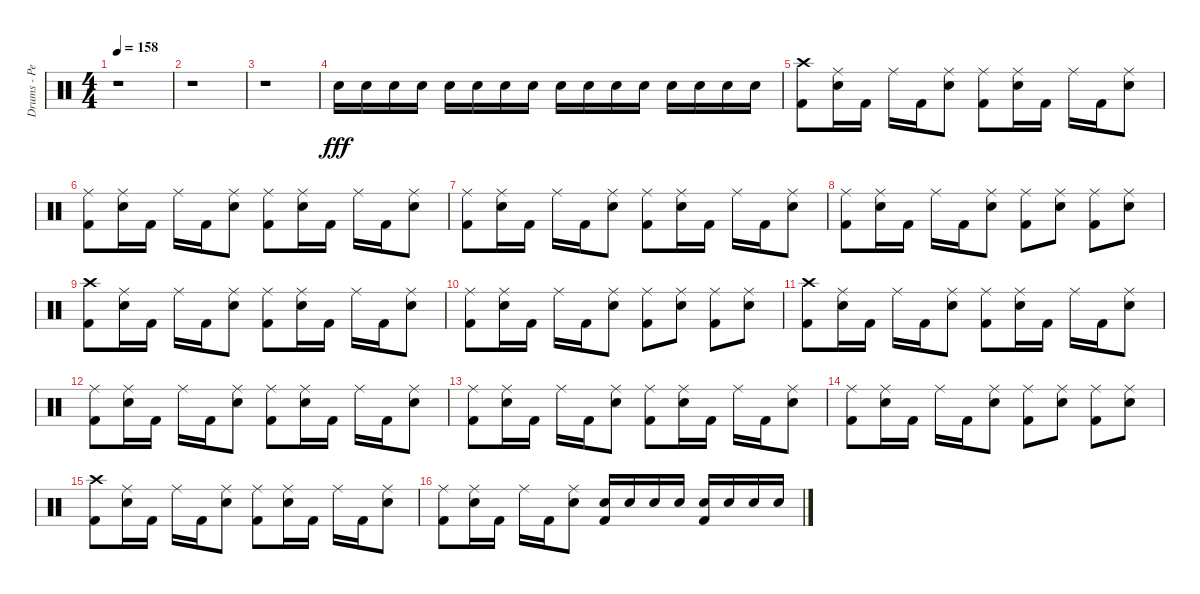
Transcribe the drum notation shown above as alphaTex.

\track ("Drums - Pete Finestone" "Drums - Pe") {instrument percussion}
\staff {score}
\articulation defaults
\ts (4 4)
\tempo 158
\clef neutral
\ks c
r.1{dy fff} |
r.1 |
r.1 |
"Electric Snare (hit)".16 "Electric Snare (hit)".16 "Electric Snare (hit)".16 "Electric Snare (hit)".16 "Electric Snare (hit)".16 "Electric Snare (hit)".16 "Electric Snare (hit)".16 "Electric Snare (hit)".16 "Electric Snare (hit)".16 "Electric Snare (hit)".16 "Electric Snare (hit)".16 "Electric Snare (hit)".16 "Electric Snare (hit)".16 "Electric Snare (hit)".16 "Electric Snare (hit)".16 "Electric Snare (hit)".16 |
("Kick (hit) 2" "Crash high (hit)").8 ("Ride (middle)" "Electric Snare (hit)").16 "Kick (hit) 2".16 "Ride (middle)".16 "Kick (hit) 2".16 ("Electric Snare (hit)" "Ride (middle)").8 ("Kick (hit) 2" "Ride (middle)").8 ("Electric Snare (hit)" "Ride (middle)").16 "Kick (hit) 2".16 "Ride (middle)".16 "Kick (hit) 2".16 ("Electric Snare (hit)" "Ride (middle)").8 |
("Kick (hit) 2" "Ride (middle)").8 ("Electric Snare (hit)" "Ride (middle)").16 "Kick (hit) 2".16 "Ride (middle)".16 "Kick (hit) 2".16 ("Electric Snare (hit)" "Ride (middle)").8 ("Kick (hit) 2" "Ride (middle)").8 ("Electric Snare (hit)" "Ride (middle)").16 "Kick (hit) 2".16 "Ride (middle)".16 "Kick (hit) 2".16 ("Electric Snare (hit)" "Ride (middle)").8 |
("Kick (hit) 2" "Ride (middle)").8 ("Electric Snare (hit)" "Ride (middle)").16 "Kick (hit) 2".16 "Ride (middle)".16 "Kick (hit) 2".16 ("Electric Snare (hit)" "Ride (middle)").8 ("Kick (hit) 2" "Ride (middle)").8 ("Electric Snare (hit)" "Ride (middle)").16 "Kick (hit) 2".16 "Ride (middle)".16 "Kick (hit) 2".16 ("Electric Snare (hit)" "Ride (middle)").8 |
("Kick (hit) 2" "Ride (middle)").8 ("Electric Snare (hit)" "Ride (middle)").16 "Kick (hit) 2".16 "Ride (middle)".16 "Kick (hit) 2".16 ("Electric Snare (hit)" "Ride (middle)").8 ("Kick (hit) 2" "Ride (middle)").8 ("Electric Snare (hit)" "Ride (middle)").8 ("Ride (middle)" "Kick (hit) 2").8 ("Electric Snare (hit)" "Ride (middle)").8 |
("Kick (hit) 2" "Crash high (hit)").8 ("Ride (middle)" "Electric Snare (hit)").16 "Kick (hit) 2".16 "Ride (middle)".16 "Kick (hit) 2".16 ("Electric Snare (hit)" "Ride (middle)").8 ("Kick (hit) 2" "Ride (middle)").8 ("Electric Snare (hit)" "Ride (middle)").16 "Kick (hit) 2".16 "Ride (middle)".16 "Kick (hit) 2".16 ("Electric Snare (hit)" "Ride (middle)").8 |
("Kick (hit) 2" "Ride (middle)").8 ("Electric Snare (hit)" "Ride (middle)").16 "Kick (hit) 2".16 "Ride (middle)".16 "Kick (hit) 2".16 ("Electric Snare (hit)" "Ride (middle)").8 ("Kick (hit) 2" "Ride (middle)").8 ("Electric Snare (hit)" "Ride (middle)").8 ("Ride (middle)" "Kick (hit) 2").8 ("Electric Snare (hit)" "Ride (middle)").8 |
("Kick (hit) 2" "Crash high (hit)").8 ("Ride (middle)" "Electric Snare (hit)").16 "Kick (hit) 2".16 "Ride (middle)".16 "Kick (hit) 2".16 ("Electric Snare (hit)" "Ride (middle)").8 ("Kick (hit) 2" "Ride (middle)").8 ("Electric Snare (hit)" "Ride (middle)").16 "Kick (hit) 2".16 "Ride (middle)".16 "Kick (hit) 2".16 ("Electric Snare (hit)" "Ride (middle)").8 |
("Kick (hit) 2" "Ride (middle)").8 ("Electric Snare (hit)" "Ride (middle)").16 "Kick (hit) 2".16 "Ride (middle)".16 "Kick (hit) 2".16 ("Electric Snare (hit)" "Ride (middle)").8 ("Kick (hit) 2" "Ride (middle)").8 ("Electric Snare (hit)" "Ride (middle)").16 "Kick (hit) 2".16 "Ride (middle)".16 "Kick (hit) 2".16 ("Electric Snare (hit)" "Ride (middle)").8 |
("Kick (hit) 2" "Ride (middle)").8 ("Electric Snare (hit)" "Ride (middle)").16 "Kick (hit) 2".16 "Ride (middle)".16 "Kick (hit) 2".16 ("Electric Snare (hit)" "Ride (middle)").8 ("Kick (hit) 2" "Ride (middle)").8 ("Electric Snare (hit)" "Ride (middle)").16 "Kick (hit) 2".16 "Ride (middle)".16 "Kick (hit) 2".16 ("Electric Snare (hit)" "Ride (middle)").8 |
("Kick (hit) 2" "Ride (middle)").8 ("Electric Snare (hit)" "Ride (middle)").16 "Kick (hit) 2".16 "Ride (middle)".16 "Kick (hit) 2".16 ("Electric Snare (hit)" "Ride (middle)").8 ("Kick (hit) 2" "Ride (middle)").8 ("Electric Snare (hit)" "Ride (middle)").8 ("Ride (middle)" "Kick (hit) 2").8 ("Electric Snare (hit)" "Ride (middle)").8 |
("Kick (hit) 2" "Crash high (hit)").8 ("Ride (middle)" "Electric Snare (hit)").16 "Kick (hit) 2".16 "Ride (middle)".16 "Kick (hit) 2".16 ("Electric Snare (hit)" "Ride (middle)").8 ("Kick (hit) 2" "Ride (middle)").8 ("Electric Snare (hit)" "Ride (middle)").16 "Kick (hit) 2".16 "Ride (middle)".16 "Kick (hit) 2".16 ("Electric Snare (hit)" "Ride (middle)").8 |
("Kick (hit) 2" "Ride (middle)").8 ("Electric Snare (hit)" "Ride (middle)").16 "Kick (hit) 2".16 "Ride (middle)".16 "Kick (hit) 2".16 ("Electric Snare (hit)" "Ride (middle)").8 ("Kick (hit) 2" "Electric Snare (hit)").16 "Electric Snare (hit)".16 "Electric Snare (hit)".16 "Electric Snare (hit)".16 ("Kick (hit) 2" "Electric Snare (hit)").16 "Electric Snare (hit)".16 "Electric Snare (hit)".16 "Electric Snare (hit)".16
